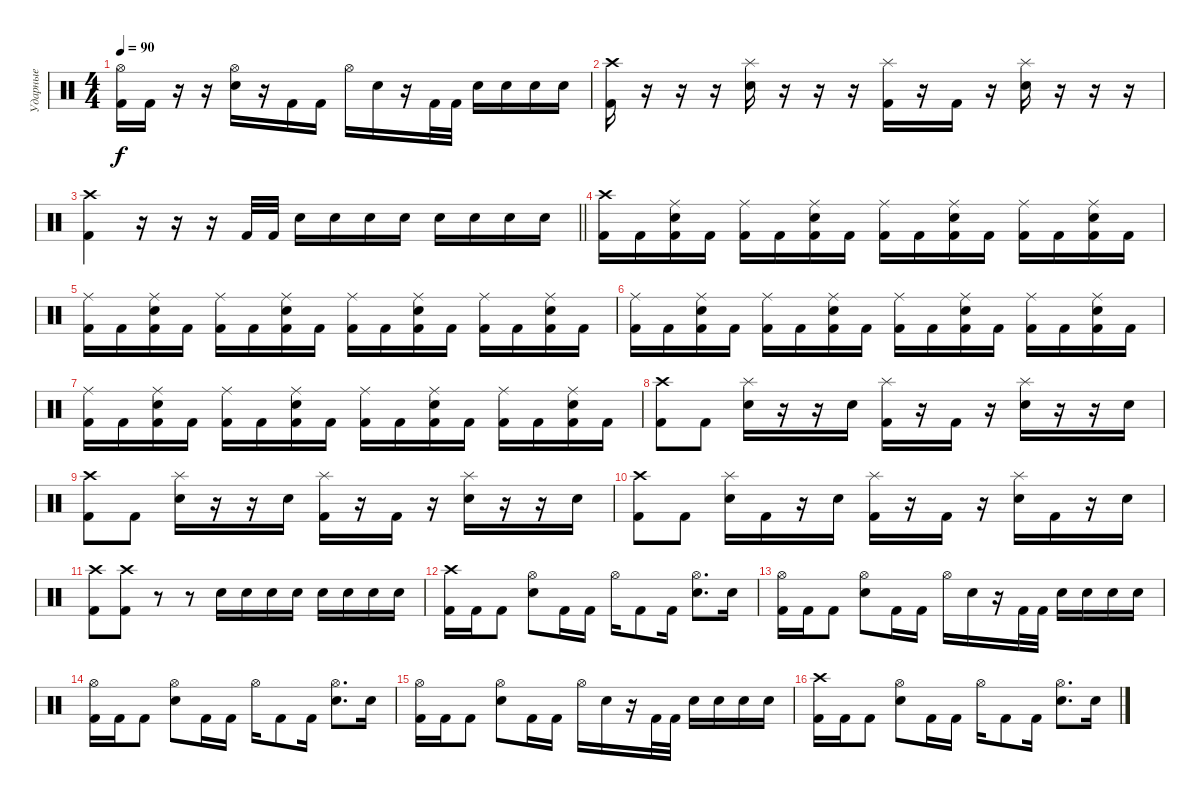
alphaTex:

\track ("Ударные" "Ударные") {instrument percussion}
\staff {score}
\articulation defaults
\ts (4 4)
\tempo 90
\clef neutral
\ks c
("Hi-Hat (open)" "Kick (hit) 2").16{dy f} "Kick (hit) 2".16 r.16 r.16 ("Hi-Hat (open)" "Snare (hit) 2").16 r.16 "Kick (hit) 2".16 "Kick (hit) 2".16 "Hi-Hat (open)".16 "Snare (hit) 2".16 r.16 "Kick (hit) 2".32 "Kick (hit) 2".32 "Snare (hit) 2".16 "Snare (hit) 2".16 "Snare (hit) 2".16 "Snare (hit) 2".16 |
("Crash high (hit)" "Kick (hit) 2").16 r.16 r.16 r.16 ("Splash (hit)" "Snare (hit) 2").16 r.16 r.16 r.16 ("Splash (hit)" "Kick (hit) 2").16 r.16 "Kick (hit) 2".16 r.16 ("Splash (hit)" "Snare (hit) 2").16 r.16 r.16 r.16 |
\barLineRight lightlight
("Crash high (hit)" "Kick (hit) 2").4 r.16 r.16 r.16 "Kick (hit) 2".32 "Kick (hit) 2".32 "Snare (hit) 2".16 "Snare (hit) 2".16 "Snare (hit) 2".16 "Snare (hit) 2".16 "Snare (hit) 2".16 "Snare (hit) 2".16 "Snare (hit) 2".16 "Snare (hit) 2".16 |
("Crash high (hit)" "Kick (hit) 2").16 "Kick (hit) 2".16 ("Ride (middle)" "Snare (hit) 2" "Kick (hit) 2").16 "Kick (hit) 2".16 ("Ride (middle)" "Kick (hit) 2").16 "Kick (hit) 2".16 ("Ride (middle)" "Snare (hit) 2" "Kick (hit) 2").16 "Kick (hit) 2".16 ("Ride (middle)" "Kick (hit) 2").16 "Kick (hit) 2".16 ("Ride (middle)" "Snare (hit) 2" "Kick (hit) 2").16 "Kick (hit) 2".16 ("Ride (middle)" "Kick (hit) 2").16 "Kick (hit) 2".16 ("Ride (middle)" "Snare (hit) 2" "Kick (hit) 2").16 "Kick (hit) 2".16 |
("Ride (middle)" "Kick (hit) 2").16 "Kick (hit) 2".16 ("Ride (middle)" "Snare (hit) 2" "Kick (hit) 2").16 "Kick (hit) 2".16 ("Ride (middle)" "Kick (hit) 2").16 "Kick (hit) 2".16 ("Ride (middle)" "Snare (hit) 2" "Kick (hit) 2").16 "Kick (hit) 2".16 ("Ride (middle)" "Kick (hit) 2").16 "Kick (hit) 2".16 ("Ride (middle)" "Snare (hit) 2" "Kick (hit) 2").16 "Kick (hit) 2".16 ("Ride (middle)" "Kick (hit) 2").16 "Kick (hit) 2".16 ("Ride (middle)" "Snare (hit) 2" "Kick (hit) 2").16 "Kick (hit) 2".16 |
("Ride (middle)" "Kick (hit) 2").16 "Kick (hit) 2".16 ("Ride (middle)" "Snare (hit) 2" "Kick (hit) 2").16 "Kick (hit) 2".16 ("Ride (middle)" "Kick (hit) 2").16 "Kick (hit) 2".16 ("Ride (middle)" "Snare (hit) 2" "Kick (hit) 2").16 "Kick (hit) 2".16 ("Ride (middle)" "Kick (hit) 2").16 "Kick (hit) 2".16 ("Ride (middle)" "Snare (hit) 2" "Kick (hit) 2").16 "Kick (hit) 2".16 ("Ride (middle)" "Kick (hit) 2").16 "Kick (hit) 2".16 ("Ride (middle)" "Snare (hit) 2" "Kick (hit) 2").16 "Kick (hit) 2".16 |
("Ride (middle)" "Kick (hit) 2").16 "Kick (hit) 2".16 ("Ride (middle)" "Snare (hit) 2" "Kick (hit) 2").16 "Kick (hit) 2".16 ("Ride (middle)" "Kick (hit) 2").16 "Kick (hit) 2".16 ("Ride (middle)" "Snare (hit) 2" "Kick (hit) 2").16 "Kick (hit) 2".16 ("Ride (middle)" "Kick (hit) 2").16 "Kick (hit) 2".16 ("Ride (middle)" "Snare (hit) 2" "Kick (hit) 2").16 "Kick (hit) 2".16 ("Ride (middle)" "Kick (hit) 2").16 "Kick (hit) 2".16 ("Ride (middle)" "Snare (hit) 2" "Kick (hit) 2").16 "Kick (hit) 2".16 |
("Crash high (hit)" "Kick (hit) 2").8 "Kick (hit) 2".8 ("Splash (hit)" "Snare (hit) 2").16 r.16 r.16 "Snare (hit) 2".16 ("Splash (hit)" "Kick (hit) 2").16 r.16 "Kick (hit) 2".16 r.16 ("Splash (hit)" "Snare (hit) 2").16 r.16 r.16 "Snare (hit) 2".16 |
("Crash high (hit)" "Kick (hit) 2").8 "Kick (hit) 2".8 ("Splash (hit)" "Snare (hit) 2").16 r.16 r.16 "Snare (hit) 2".16 ("Splash (hit)" "Kick (hit) 2").16 r.16 "Kick (hit) 2".16 r.16 ("Splash (hit)" "Snare (hit) 2").16 r.16 r.16 "Snare (hit) 2".16 |
("Crash high (hit)" "Kick (hit) 2").8 "Kick (hit) 2".8 ("Splash (hit)" "Snare (hit) 2").16 "Kick (hit) 2".16 r.16 "Snare (hit) 2".16 ("Splash (hit)" "Kick (hit) 2").16 r.16 "Kick (hit) 2".16 r.16 ("Splash (hit)" "Snare (hit) 2").16 "Kick (hit) 2".16 r.16 "Snare (hit) 2".16 |
("Crash high (hit)" "Kick (hit) 2").8 ("Crash high (hit)" "Kick (hit) 2").8 r.8 r.8 "Snare (hit) 2".16 "Snare (hit) 2".16 "Snare (hit) 2".16 "Snare (hit) 2".16 "Snare (hit) 2".16 "Snare (hit) 2".16 "Snare (hit) 2".16 "Snare (hit) 2".16 |
("Crash high (hit)" "Kick (hit) 2").16 "Kick (hit) 2".16 "Kick (hit) 2".8 ("Hi-Hat (open)" "Snare (hit) 2").8 "Kick (hit) 2".16 "Kick (hit) 2".16 "Hi-Hat (open)".16 "Kick (hit) 2".8 "Kick (hit) 2".16 ("Hi-Hat (open)" "Snare (hit) 2").8{d} "Snare (hit) 2".16 |
("Hi-Hat (open)" "Kick (hit) 2").16 "Kick (hit) 2".16 "Kick (hit) 2".8 ("Hi-Hat (open)" "Snare (hit) 2").8 "Kick (hit) 2".16 "Kick (hit) 2".16 "Hi-Hat (open)".16 "Snare (hit) 2".16 r.16 "Kick (hit) 2".32 "Kick (hit) 2".32 "Snare (hit) 2".16 "Snare (hit) 2".16 "Snare (hit) 2".16 "Snare (hit) 2".16 |
("Hi-Hat (open)" "Kick (hit) 2").16 "Kick (hit) 2".16 "Kick (hit) 2".8 ("Hi-Hat (open)" "Snare (hit) 2").8 "Kick (hit) 2".16 "Kick (hit) 2".16 "Hi-Hat (open)".16 "Kick (hit) 2".8 "Kick (hit) 2".16 ("Hi-Hat (open)" "Snare (hit) 2").8{d} "Snare (hit) 2".16 |
("Hi-Hat (open)" "Kick (hit) 2").16 "Kick (hit) 2".16 "Kick (hit) 2".8 ("Hi-Hat (open)" "Snare (hit) 2").8 "Kick (hit) 2".16 "Kick (hit) 2".16 "Hi-Hat (open)".16 "Snare (hit) 2".16 r.16 "Kick (hit) 2".32 "Kick (hit) 2".32 "Snare (hit) 2".16 "Snare (hit) 2".16 "Snare (hit) 2".16 "Snare (hit) 2".16 |
("Crash high (hit)" "Kick (hit) 2").16 "Kick (hit) 2".16 "Kick (hit) 2".8 ("Hi-Hat (open)" "Snare (hit) 2").8 "Kick (hit) 2".16 "Kick (hit) 2".16 "Hi-Hat (open)".16 "Kick (hit) 2".8 "Kick (hit) 2".16 ("Hi-Hat (open)" "Snare (hit) 2").8{d} "Snare (hit) 2".16
